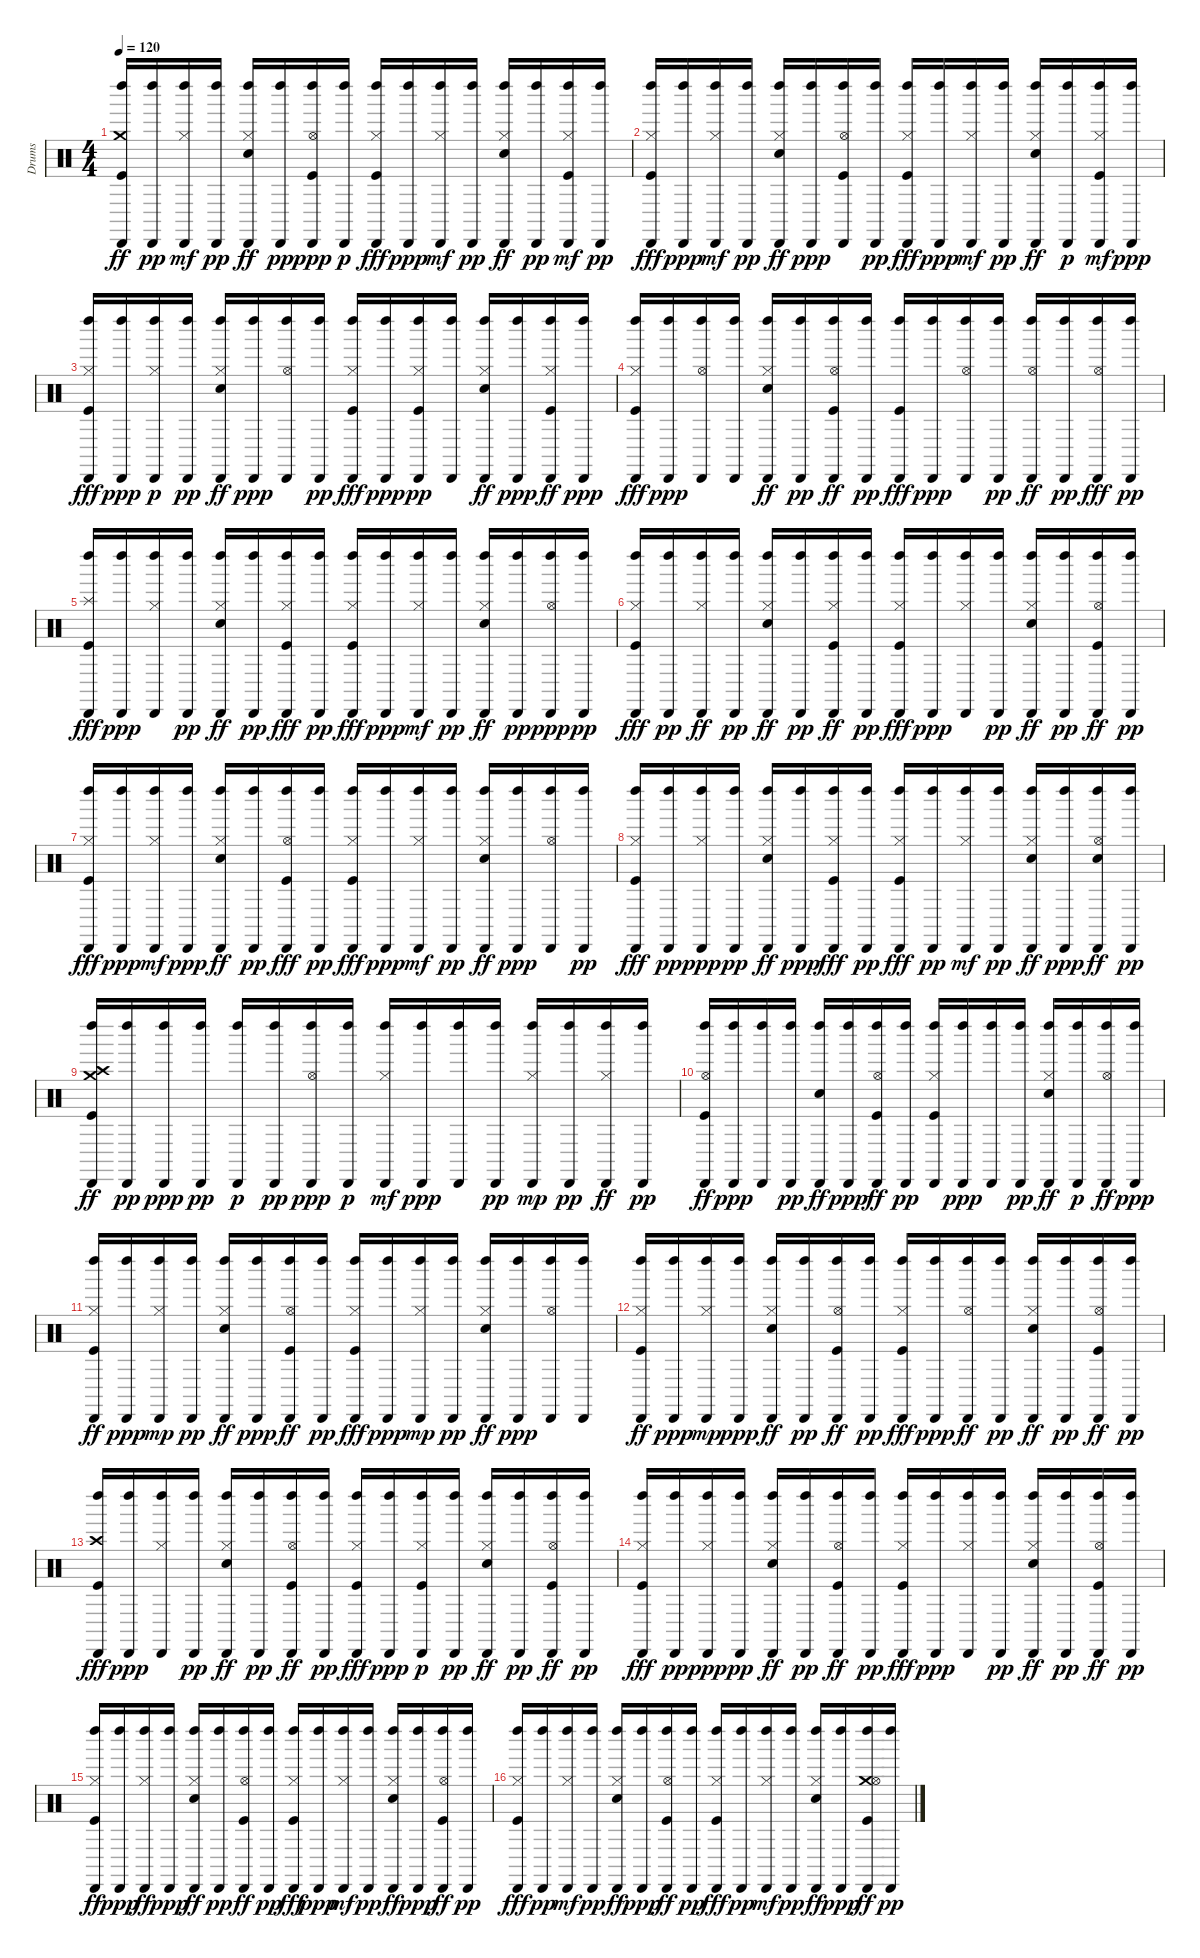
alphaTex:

\track ("Drums" "Drums") {instrument percussion}
\staff {score}
\articulation defaults
\ts (4 4)
\tempo 120
\clef neutral
\ks c
("Left Maraca (hit)" "Cabasa (hit)" "Crash medium (hit)" "Kick (hit)").16{dy ff} ("Left Maraca (hit)" "Cabasa (hit)").16{dy pp} ("Left Maraca (hit)" "Cabasa (hit)" "Hi-Hat (closed)").16{dy mf} ("Left Maraca (hit)" "Cabasa (hit)").16{dy pp} ("Left Maraca (hit)" "Cabasa (hit)" "Hi-Hat (closed)" "Electric Snare (hit)").16{dy ff} ("Left Maraca (hit)" "Cabasa (hit)").16{dy pp} ("Left Maraca (hit)" "Cabasa (hit)" "Hi-Hat (open)" "Kick (hit)").16{dy ppp} ("Left Maraca (hit)" "Cabasa (hit)").16{dy p} ("Left Maraca (hit)" "Cabasa (hit)" "Hi-Hat (closed)" "Kick (hit)").16{dy fff} ("Left Maraca (hit)" "Cabasa (hit)").16{dy ppp} ("Left Maraca (hit)" "Cabasa (hit)" "Hi-Hat (closed)").16{dy mf} ("Left Maraca (hit)" "Cabasa (hit)").16{dy pp} ("Left Maraca (hit)" "Cabasa (hit)" "Hi-Hat (closed)" "Electric Snare (hit)").16{dy ff} ("Left Maraca (hit)" "Cabasa (hit)").16{dy pp} ("Left Maraca (hit)" "Cabasa (hit)" "Hi-Hat (closed)" "Kick (hit)").16{dy mf} ("Left Maraca (hit)" "Cabasa (hit)").16{dy pp} |
("Left Maraca (hit)" "Cabasa (hit)" "Hi-Hat (closed)" "Kick (hit)").16{dy fff} ("Left Maraca (hit)" "Cabasa (hit)").16{dy ppp} ("Left Maraca (hit)" "Cabasa (hit)" "Hi-Hat (closed)").16{dy mf} ("Left Maraca (hit)" "Cabasa (hit)").16{dy pp} ("Left Maraca (hit)" "Cabasa (hit)" "Hi-Hat (closed)" "Electric Snare (hit)").16{dy ff} ("Left Maraca (hit)" "Cabasa (hit)").16{dy ppp} ("Left Maraca (hit)" "Cabasa (hit)" "Hi-Hat (open)" "Kick (hit)").16 ("Left Maraca (hit)" "Cabasa (hit)").16{dy pp} ("Left Maraca (hit)" "Cabasa (hit)" "Hi-Hat (closed)" "Kick (hit)").16{dy fff} ("Left Maraca (hit)" "Cabasa (hit)").16{dy ppp} ("Left Maraca (hit)" "Cabasa (hit)" "Hi-Hat (closed)").16{dy mf} ("Left Maraca (hit)" "Cabasa (hit)").16{dy pp} ("Left Maraca (hit)" "Cabasa (hit)" "Hi-Hat (closed)" "Electric Snare (hit)").16{dy ff} ("Left Maraca (hit)" "Cabasa (hit)").16{dy p} ("Left Maraca (hit)" "Cabasa (hit)" "Hi-Hat (closed)" "Kick (hit)").16{dy mf} ("Left Maraca (hit)" "Cabasa (hit)").16{dy ppp} |
("Left Maraca (hit)" "Cabasa (hit)" "Hi-Hat (closed)" "Kick (hit)").16{dy fff} ("Left Maraca (hit)" "Cabasa (hit)").16{dy ppp} ("Left Maraca (hit)" "Cabasa (hit)" "Hi-Hat (closed)").16{dy p} ("Left Maraca (hit)" "Cabasa (hit)").16{dy pp} ("Left Maraca (hit)" "Cabasa (hit)" "Hi-Hat (closed)" "Electric Snare (hit)").16{dy ff} ("Left Maraca (hit)" "Cabasa (hit)").16{dy ppp} ("Left Maraca (hit)" "Cabasa (hit)" "Hi-Hat (open)").16 ("Left Maraca (hit)" "Cabasa (hit)").16{dy pp} ("Left Maraca (hit)" "Cabasa (hit)" "Hi-Hat (closed)" "Kick (hit)").16{dy fff} ("Left Maraca (hit)" "Cabasa (hit)").16{dy ppp} ("Left Maraca (hit)" "Cabasa (hit)" "Hi-Hat (closed)" "Kick (hit)").16{dy pp} ("Left Maraca (hit)" "Cabasa (hit)").16 ("Left Maraca (hit)" "Cabasa (hit)" "Hi-Hat (closed)" "Electric Snare (hit)").16{dy ff} ("Left Maraca (hit)" "Cabasa (hit)").16{dy ppp} ("Left Maraca (hit)" "Cabasa (hit)" "Hi-Hat (closed)" "Kick (hit)").16{dy ff} ("Left Maraca (hit)" "Cabasa (hit)").16{dy ppp} |
("Left Maraca (hit)" "Cabasa (hit)" "Hi-Hat (closed)" "Kick (hit)").16{dy fff} ("Left Maraca (hit)" "Cabasa (hit)").16{dy ppp} ("Left Maraca (hit)" "Cabasa (hit)" "Hi-Hat (open)").16 ("Left Maraca (hit)" "Cabasa (hit)").16 ("Left Maraca (hit)" "Cabasa (hit)" "Hi-Hat (closed)" "Electric Snare (hit)").16{dy ff} ("Left Maraca (hit)" "Cabasa (hit)").16{dy pp} ("Left Maraca (hit)" "Cabasa (hit)" "Hi-Hat (open)" "Kick (hit)").16{dy ff} ("Left Maraca (hit)" "Cabasa (hit)").16{dy pp} ("Left Maraca (hit)" "Cabasa (hit)" "Kick (hit)").16{dy fff} ("Left Maraca (hit)" "Cabasa (hit)").16{dy ppp} ("Left Maraca (hit)" "Cabasa (hit)" "Hi-Hat (open)").16 ("Left Maraca (hit)" "Cabasa (hit)").16{dy pp} ("Left Maraca (hit)" "Cabasa (hit)" "Hi-Hat (open)").16{dy ff} ("Left Maraca (hit)" "Cabasa (hit)").16{dy pp} ("Left Maraca (hit)" "Cabasa (hit)" "Hi-Hat (open)").16{dy fff} ("Left Maraca (hit)" "Cabasa (hit)").16{dy pp} |
("Left Maraca (hit)" "Cabasa (hit)" "Splash (hit)" "Kick (hit)").16{dy fff} ("Left Maraca (hit)" "Cabasa (hit)").16{dy ppp} ("Left Maraca (hit)" "Cabasa (hit)" "Hi-Hat (closed)").16 ("Left Maraca (hit)" "Cabasa (hit)").16{dy pp} ("Left Maraca (hit)" "Cabasa (hit)" "Hi-Hat (closed)" "Electric Snare (hit)").16{dy ff} ("Left Maraca (hit)" "Cabasa (hit)").16{dy pp} ("Left Maraca (hit)" "Cabasa (hit)" "Hi-Hat (closed)" "Kick (hit)").16{dy fff} ("Left Maraca (hit)" "Cabasa (hit)").16{dy pp} ("Left Maraca (hit)" "Cabasa (hit)" "Hi-Hat (closed)" "Kick (hit)").16{dy fff} ("Left Maraca (hit)" "Cabasa (hit)").16{dy ppp} ("Left Maraca (hit)" "Cabasa (hit)" "Hi-Hat (closed)").16{dy mf} ("Left Maraca (hit)" "Cabasa (hit)").16{dy pp} ("Left Maraca (hit)" "Cabasa (hit)" "Hi-Hat (closed)" "Electric Snare (hit)").16{dy ff} ("Left Maraca (hit)" "Cabasa (hit)").16{dy pp} ("Left Maraca (hit)" "Cabasa (hit)" "Hi-Hat (open)").16{dy ppp} ("Left Maraca (hit)" "Cabasa (hit)").16{dy pp} |
("Left Maraca (hit)" "Cabasa (hit)" "Hi-Hat (closed)" "Kick (hit)").16{dy fff} ("Left Maraca (hit)" "Cabasa (hit)").16{dy pp} ("Left Maraca (hit)" "Cabasa (hit)" "Hi-Hat (closed)").16{dy ff} ("Left Maraca (hit)" "Cabasa (hit)").16{dy pp} ("Left Maraca (hit)" "Cabasa (hit)" "Hi-Hat (closed)" "Electric Snare (hit)").16{dy ff} ("Left Maraca (hit)" "Cabasa (hit)").16{dy pp} ("Left Maraca (hit)" "Cabasa (hit)" "Hi-Hat (closed)" "Kick (hit)").16{dy ff} ("Left Maraca (hit)" "Cabasa (hit)").16{dy pp} ("Left Maraca (hit)" "Cabasa (hit)" "Hi-Hat (closed)" "Kick (hit)").16{dy fff} ("Left Maraca (hit)" "Cabasa (hit)").16{dy ppp} ("Left Maraca (hit)" "Cabasa (hit)" "Hi-Hat (closed)").16 ("Left Maraca (hit)" "Cabasa (hit)").16{dy pp} ("Left Maraca (hit)" "Cabasa (hit)" "Hi-Hat (closed)" "Electric Snare (hit)").16{dy ff} ("Left Maraca (hit)" "Cabasa (hit)").16{dy pp} ("Left Maraca (hit)" "Cabasa (hit)" "Hi-Hat (open)" "Kick (hit)").16{dy ff} ("Left Maraca (hit)" "Cabasa (hit)").16{dy pp} |
("Left Maraca (hit)" "Cabasa (hit)" "Hi-Hat (closed)" "Kick (hit)").16{dy fff} ("Left Maraca (hit)" "Cabasa (hit)").16{dy ppp} ("Left Maraca (hit)" "Cabasa (hit)" "Hi-Hat (closed)").16{dy mf} ("Left Maraca (hit)" "Cabasa (hit)").16{dy ppp} ("Left Maraca (hit)" "Cabasa (hit)" "Hi-Hat (closed)" "Electric Snare (hit)").16{dy ff} ("Left Maraca (hit)" "Cabasa (hit)").16{dy pp} ("Left Maraca (hit)" "Cabasa (hit)" "Hi-Hat (open)" "Kick (hit)").16{dy fff} ("Left Maraca (hit)" "Cabasa (hit)").16{dy pp} ("Left Maraca (hit)" "Cabasa (hit)" "Hi-Hat (closed)" "Kick (hit)").16{dy fff} ("Left Maraca (hit)" "Cabasa (hit)").16{dy ppp} ("Left Maraca (hit)" "Cabasa (hit)" "Hi-Hat (closed)").16{dy mf} ("Left Maraca (hit)" "Cabasa (hit)").16{dy pp} ("Left Maraca (hit)" "Cabasa (hit)" "Hi-Hat (closed)" "Electric Snare (hit)").16{dy ff} ("Left Maraca (hit)" "Cabasa (hit)").16{dy ppp} ("Left Maraca (hit)" "Cabasa (hit)" "Hi-Hat (open)").16 ("Left Maraca (hit)" "Cabasa (hit)").16{dy pp} |
("Left Maraca (hit)" "Cabasa (hit)" "Hi-Hat (closed)" "Kick (hit)").16{dy fff} ("Left Maraca (hit)" "Cabasa (hit)").16{dy pp} ("Left Maraca (hit)" "Cabasa (hit)" "Hi-Hat (closed)").16{dy ppp} ("Left Maraca (hit)" "Cabasa (hit)").16{dy pp} ("Left Maraca (hit)" "Cabasa (hit)" "Hi-Hat (closed)" "Electric Snare (hit)").16{dy ff} ("Left Maraca (hit)" "Cabasa (hit)").16{dy ppp} ("Left Maraca (hit)" "Cabasa (hit)" "Hi-Hat (closed)" "Kick (hit)").16{dy fff} ("Left Maraca (hit)" "Cabasa (hit)").16{dy pp} ("Left Maraca (hit)" "Cabasa (hit)" "Hi-Hat (closed)" "Kick (hit)").16{dy fff} ("Left Maraca (hit)" "Cabasa (hit)").16{dy pp} ("Left Maraca (hit)" "Cabasa (hit)" "Hi-Hat (closed)").16{dy mf} ("Left Maraca (hit)" "Cabasa (hit)").16{dy pp} ("Left Maraca (hit)" "Cabasa (hit)" "Hi-Hat (closed)" "Electric Snare (hit)").16{dy ff} ("Left Maraca (hit)" "Cabasa (hit)").16{dy ppp} ("Left Maraca (hit)" "Cabasa (hit)" "Hi-Hat (open)" "Electric Snare (hit)").16{dy ff} ("Left Maraca (hit)" "Cabasa (hit)").16{dy pp} |
("Left Maraca (hit)" "Cabasa (hit)" "Crash medium (hit)" "Crash high (hit)" "Kick (hit)").16{dy ff} ("Left Maraca (hit)" "Cabasa (hit)").16{dy pp} ("Left Maraca (hit)" "Cabasa (hit)").16{dy ppp} ("Left Maraca (hit)" "Cabasa (hit)").16{dy pp} ("Left Maraca (hit)" "Cabasa (hit)").16{dy p} ("Left Maraca (hit)" "Cabasa (hit)").16{dy pp} ("Left Maraca (hit)" "Cabasa (hit)" "Hi-Hat (open)").16{dy ppp} ("Left Maraca (hit)" "Cabasa (hit)").16{dy p} ("Left Maraca (hit)" "Cabasa (hit)" "Hi-Hat (closed)").16{dy mf} ("Left Maraca (hit)" "Cabasa (hit)").16{dy ppp} ("Left Maraca (hit)" "Cabasa (hit)").16 ("Left Maraca (hit)" "Cabasa (hit)").16{dy pp} ("Left Maraca (hit)" "Cabasa (hit)" "Hi-Hat (closed)").16{dy mp} ("Left Maraca (hit)" "Cabasa (hit)").16{dy pp} ("Left Maraca (hit)" "Cabasa (hit)" "Hi-Hat (closed)").16{dy ff} ("Left Maraca (hit)" "Cabasa (hit)").16{dy pp} |
("Left Maraca (hit)" "Cabasa (hit)" "Hi-Hat (open)" "Kick (hit)").16{dy ff} ("Left Maraca (hit)" "Cabasa (hit)").16{dy ppp} ("Left Maraca (hit)" "Cabasa (hit)").16 ("Left Maraca (hit)" "Cabasa (hit)").16{dy pp} ("Left Maraca (hit)" "Cabasa (hit)" "Electric Snare (hit)").16{dy ff} ("Left Maraca (hit)" "Cabasa (hit)").16{dy ppp} ("Left Maraca (hit)" "Cabasa (hit)" "Hi-Hat (open)" "Kick (hit)").16{dy ff} ("Left Maraca (hit)" "Cabasa (hit)").16{dy pp} ("Left Maraca (hit)" "Cabasa (hit)" "Hi-Hat (closed)" "Kick (hit)").16 ("Left Maraca (hit)" "Cabasa (hit)").16{dy ppp} ("Left Maraca (hit)" "Cabasa (hit)").16 ("Left Maraca (hit)" "Cabasa (hit)").16{dy pp} ("Left Maraca (hit)" "Cabasa (hit)" "Hi-Hat (closed)" "Electric Snare (hit)").16{dy ff} ("Left Maraca (hit)" "Cabasa (hit)").16{dy p} ("Left Maraca (hit)" "Cabasa (hit)" "Hi-Hat (open)").16{dy ff} ("Left Maraca (hit)" "Cabasa (hit)").16{dy ppp} |
("Left Maraca (hit)" "Cabasa (hit)" "Hi-Hat (closed)" "Kick (hit)").16{dy ff} ("Left Maraca (hit)" "Cabasa (hit)").16{dy ppp} ("Left Maraca (hit)" "Cabasa (hit)" "Hi-Hat (closed)").16{dy mp} ("Left Maraca (hit)" "Cabasa (hit)").16{dy pp} ("Left Maraca (hit)" "Cabasa (hit)" "Hi-Hat (closed)" "Electric Snare (hit)").16{dy ff} ("Left Maraca (hit)" "Cabasa (hit)").16{dy ppp} ("Left Maraca (hit)" "Cabasa (hit)" "Hi-Hat (open)" "Kick (hit)").16{dy ff} ("Left Maraca (hit)" "Cabasa (hit)").16{dy pp} ("Left Maraca (hit)" "Cabasa (hit)" "Hi-Hat (closed)" "Kick (hit)").16{dy fff} ("Left Maraca (hit)" "Cabasa (hit)").16{dy ppp} ("Left Maraca (hit)" "Cabasa (hit)" "Hi-Hat (closed)").16{dy mp} ("Left Maraca (hit)" "Cabasa (hit)").16{dy pp} ("Left Maraca (hit)" "Cabasa (hit)" "Hi-Hat (closed)" "Electric Snare (hit)").16{dy ff} ("Left Maraca (hit)" "Cabasa (hit)").16{dy ppp} ("Left Maraca (hit)" "Cabasa (hit)" "Hi-Hat (open)").16 ("Left Maraca (hit)" "Cabasa (hit)").16 |
("Left Maraca (hit)" "Cabasa (hit)" "Hi-Hat (closed)" "Kick (hit)").16{dy ff} ("Left Maraca (hit)" "Cabasa (hit)").16{dy ppp} ("Left Maraca (hit)" "Cabasa (hit)" "Hi-Hat (closed)").16{dy mp} ("Left Maraca (hit)" "Cabasa (hit)").16{dy ppp} ("Left Maraca (hit)" "Cabasa (hit)" "Hi-Hat (closed)" "Electric Snare (hit)").16{dy ff} ("Left Maraca (hit)" "Cabasa (hit)").16{dy pp} ("Left Maraca (hit)" "Cabasa (hit)" "Hi-Hat (open)" "Kick (hit)").16{dy ff} ("Left Maraca (hit)" "Cabasa (hit)").16{dy pp} ("Left Maraca (hit)" "Cabasa (hit)" "Hi-Hat (closed)" "Kick (hit)").16{dy fff} ("Left Maraca (hit)" "Cabasa (hit)").16{dy ppp} ("Left Maraca (hit)" "Cabasa (hit)" "Hi-Hat (open)").16{dy ff} ("Left Maraca (hit)" "Cabasa (hit)").16{dy pp} ("Left Maraca (hit)" "Cabasa (hit)" "Hi-Hat (closed)" "Electric Snare (hit)").16{dy ff} ("Left Maraca (hit)" "Cabasa (hit)").16{dy pp} ("Left Maraca (hit)" "Cabasa (hit)" "Hi-Hat (open)" "Kick (hit)").16{dy ff} ("Left Maraca (hit)" "Cabasa (hit)").16{dy pp} |
("Left Maraca (hit)" "Cabasa (hit)" "Crash high (hit)" "Kick (hit)").16{dy fff} ("Left Maraca (hit)" "Cabasa (hit)").16{dy ppp} ("Left Maraca (hit)" "Cabasa (hit)" "Hi-Hat (closed)").16 ("Left Maraca (hit)" "Cabasa (hit)").16{dy pp} ("Left Maraca (hit)" "Cabasa (hit)" "Hi-Hat (closed)" "Electric Snare (hit)").16{dy ff} ("Left Maraca (hit)" "Cabasa (hit)").16{dy pp} ("Left Maraca (hit)" "Cabasa (hit)" "Hi-Hat (open)" "Kick (hit)").16{dy ff} ("Left Maraca (hit)" "Cabasa (hit)").16{dy pp} ("Left Maraca (hit)" "Cabasa (hit)" "Hi-Hat (closed)" "Kick (hit)").16{dy fff} ("Left Maraca (hit)" "Cabasa (hit)").16{dy ppp} ("Left Maraca (hit)" "Cabasa (hit)" "Hi-Hat (closed)" "Kick (hit)").16{dy p} ("Left Maraca (hit)" "Cabasa (hit)").16{dy pp} ("Left Maraca (hit)" "Cabasa (hit)" "Hi-Hat (closed)" "Electric Snare (hit)").16{dy ff} ("Left Maraca (hit)" "Cabasa (hit)").16{dy pp} ("Left Maraca (hit)" "Cabasa (hit)" "Hi-Hat (open)" "Kick (hit)").16{dy ff} ("Left Maraca (hit)" "Cabasa (hit)").16{dy pp} |
("Left Maraca (hit)" "Cabasa (hit)" "Hi-Hat (closed)" "Kick (hit)").16{dy fff} ("Left Maraca (hit)" "Cabasa (hit)").16{dy pp} ("Left Maraca (hit)" "Cabasa (hit)" "Hi-Hat (closed)").16{dy ppp} ("Left Maraca (hit)" "Cabasa (hit)").16{dy pp} ("Left Maraca (hit)" "Cabasa (hit)" "Hi-Hat (closed)" "Electric Snare (hit)").16{dy ff} ("Left Maraca (hit)" "Cabasa (hit)").16{dy pp} ("Left Maraca (hit)" "Cabasa (hit)" "Hi-Hat (open)" "Kick (hit)").16{dy ff} ("Left Maraca (hit)" "Cabasa (hit)").16{dy pp} ("Left Maraca (hit)" "Cabasa (hit)" "Hi-Hat (closed)" "Kick (hit)").16{dy fff} ("Left Maraca (hit)" "Cabasa (hit)").16{dy ppp} ("Left Maraca (hit)" "Cabasa (hit)" "Hi-Hat (closed)").16 ("Left Maraca (hit)" "Cabasa (hit)").16{dy pp} ("Left Maraca (hit)" "Cabasa (hit)" "Hi-Hat (closed)" "Electric Snare (hit)").16{dy ff} ("Left Maraca (hit)" "Cabasa (hit)").16{dy pp} ("Left Maraca (hit)" "Cabasa (hit)" "Hi-Hat (open)" "Kick (hit)").16{dy ff} ("Left Maraca (hit)" "Cabasa (hit)").16{dy pp} |
("Left Maraca (hit)" "Cabasa (hit)" "Hi-Hat (closed)" "Kick (hit)").16{dy ff} ("Left Maraca (hit)" "Cabasa (hit)").16{dy ppp} ("Left Maraca (hit)" "Cabasa (hit)" "Hi-Hat (closed)").16{dy ff} ("Left Maraca (hit)" "Cabasa (hit)").16{dy ppp} ("Left Maraca (hit)" "Cabasa (hit)" "Hi-Hat (closed)" "Electric Snare (hit)").16{dy ff} ("Left Maraca (hit)" "Cabasa (hit)").16{dy pp} ("Left Maraca (hit)" "Cabasa (hit)" "Hi-Hat (open)" "Kick (hit)").16{dy ff} ("Left Maraca (hit)" "Cabasa (hit)").16{dy pp} ("Left Maraca (hit)" "Cabasa (hit)" "Hi-Hat (closed)" "Kick (hit)").16{dy fff} ("Left Maraca (hit)" "Cabasa (hit)").16{dy ppp} ("Left Maraca (hit)" "Cabasa (hit)" "Hi-Hat (closed)").16{dy mf} ("Left Maraca (hit)" "Cabasa (hit)").16{dy pp} ("Left Maraca (hit)" "Cabasa (hit)" "Hi-Hat (closed)" "Electric Snare (hit)").16{dy ff} ("Left Maraca (hit)" "Cabasa (hit)").16{dy ppp} ("Left Maraca (hit)" "Cabasa (hit)" "Hi-Hat (open)" "Kick (hit)").16{dy ff} ("Left Maraca (hit)" "Cabasa (hit)").16{dy pp} |
("Left Maraca (hit)" "Cabasa (hit)" "Hi-Hat (closed)" "Kick (hit)").16{dy fff} ("Left Maraca (hit)" "Cabasa (hit)").16{dy pp} ("Left Maraca (hit)" "Cabasa (hit)" "Hi-Hat (closed)").16{dy mf} ("Left Maraca (hit)" "Cabasa (hit)").16{dy pp} ("Left Maraca (hit)" "Cabasa (hit)" "Hi-Hat (closed)" "Electric Snare (hit)").16{dy ff} ("Left Maraca (hit)" "Cabasa (hit)").16{dy ppp} ("Left Maraca (hit)" "Cabasa (hit)" "Hi-Hat (open)" "Kick (hit)").16{dy ff} ("Left Maraca (hit)" "Cabasa (hit)").16{dy pp} ("Left Maraca (hit)" "Cabasa (hit)" "Hi-Hat (closed)" "Kick (hit)").16{dy fff} ("Left Maraca (hit)" "Cabasa (hit)").16{dy pp} ("Left Maraca (hit)" "Cabasa (hit)" "Hi-Hat (closed)").16{dy mf} ("Left Maraca (hit)" "Cabasa (hit)").16{dy pp} ("Left Maraca (hit)" "Cabasa (hit)" "Hi-Hat (closed)" "Electric Snare (hit)").16{dy ff} ("Left Maraca (hit)" "Cabasa (hit)").16{dy ppp} ("Left Maraca (hit)" "Cabasa (hit)" "Crash medium (hit)" "Hi-Hat (open)" "Kick (hit)").16{dy ff} ("Left Maraca (hit)" "Cabasa (hit)").16{dy pp}
